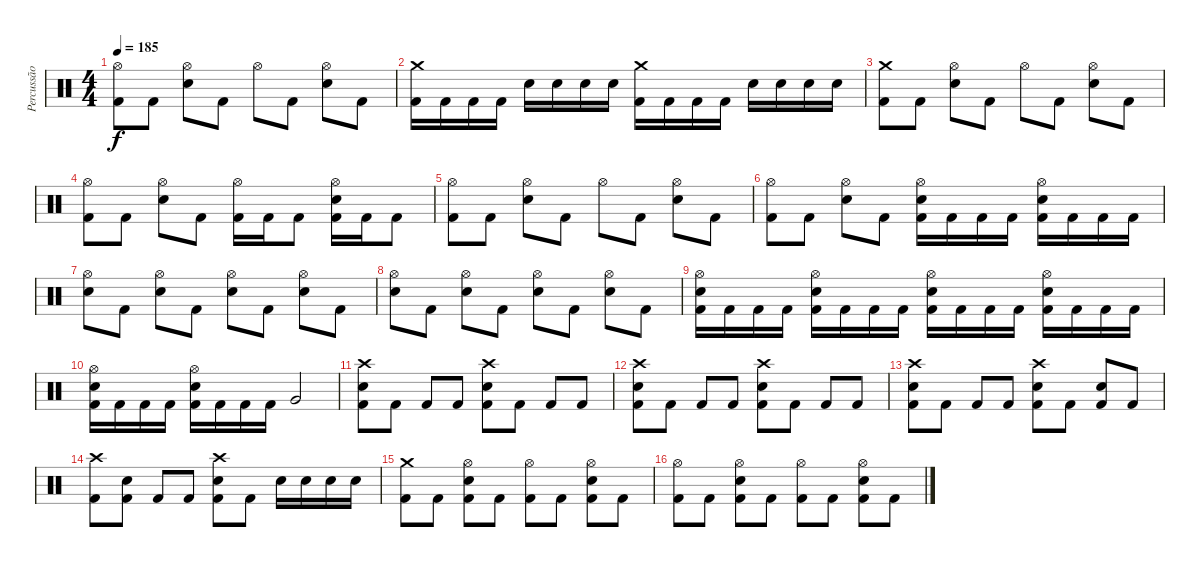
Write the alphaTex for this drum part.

\track ("Percussão" "Percussão") {instrument percussion}
\staff {score}
\articulation defaults
\ts (4 4)
\tempo 185
\clef neutral
\ks c
("Hi-Hat (open)" "Kick (hit) 2").8{dy f} "Kick (hit) 2".8 ("Hi-Hat (open)" "Snare (hit) 2").8 "Kick (hit) 2".8 "Hi-Hat (open)".8 "Kick (hit) 2".8 ("Hi-Hat (open)" "Snare (hit) 2").8 "Kick (hit) 2".8 |
("Crash medium (hit)" "Kick (hit) 2").16 "Kick (hit) 2".16 "Kick (hit) 2".16 "Kick (hit) 2".16 "Snare (hit) 2".16 "Snare (hit) 2".16 "Snare (hit) 2".16 "Snare (hit) 2".16 ("Crash medium (hit)" "Kick (hit) 2").16 "Kick (hit) 2".16 "Kick (hit) 2".16 "Kick (hit) 2".16 "Snare (hit) 2".16 "Snare (hit) 2".16 "Snare (hit) 2".16 "Snare (hit) 2".16 |
("Crash medium (hit)" "Kick (hit) 2").8 "Kick (hit) 2".8 ("Hi-Hat (open)" "Snare (hit) 2").8 "Kick (hit) 2".8 "Hi-Hat (open)".8 "Kick (hit) 2".8 ("Hi-Hat (open)" "Snare (hit) 2").8 "Kick (hit) 2".8 |
("Hi-Hat (open)" "Kick (hit) 2").8 "Kick (hit) 2".8 ("Hi-Hat (open)" "Snare (hit) 2").8 "Kick (hit) 2".8 ("Hi-Hat (open)" "Kick (hit) 2").16 "Kick (hit) 2".16 "Kick (hit) 2".8 ("Hi-Hat (open)" "Snare (hit) 2" "Kick (hit) 2").16 "Kick (hit) 2".16 "Kick (hit) 2".8 |
("Hi-Hat (open)" "Kick (hit) 2").8 "Kick (hit) 2".8 ("Hi-Hat (open)" "Snare (hit) 2").8 "Kick (hit) 2".8 "Hi-Hat (open)".8 "Kick (hit) 2".8 ("Hi-Hat (open)" "Snare (hit) 2").8 "Kick (hit) 2".8 |
("Hi-Hat (open)" "Kick (hit) 2").8 "Kick (hit) 2".8 ("Hi-Hat (open)" "Snare (hit) 2").8 "Kick (hit) 2".8 ("Hi-Hat (open)" "Snare (hit) 2" "Kick (hit) 2").16 "Kick (hit) 2".16 "Kick (hit) 2".16 "Kick (hit) 2".16 ("Hi-Hat (open)" "Snare (hit) 2" "Kick (hit) 2").16 "Kick (hit) 2".16 "Kick (hit) 2".16 "Kick (hit) 2".16 |
("Hi-Hat (open)" "Snare (hit) 2").8 "Kick (hit) 2".8 ("Hi-Hat (open)" "Snare (hit) 2").8 "Kick (hit) 2".8 ("Hi-Hat (open)" "Snare (hit) 2").8 "Kick (hit) 2".8 ("Hi-Hat (open)" "Snare (hit) 2").8 "Kick (hit) 2".8 |
("Hi-Hat (open)" "Snare (hit) 2").8 "Kick (hit) 2".8 ("Hi-Hat (open)" "Snare (hit) 2").8 "Kick (hit) 2".8 ("Hi-Hat (open)" "Snare (hit) 2").8 "Kick (hit) 2".8 ("Hi-Hat (open)" "Snare (hit) 2").8 "Kick (hit) 2".8 |
("Hi-Hat (open)" "Snare (hit) 2" "Kick (hit) 2").16 "Kick (hit) 2".16 "Kick (hit) 2".16 "Kick (hit) 2".16 ("Hi-Hat (open)" "Snare (hit) 2" "Kick (hit) 2").16 "Kick (hit) 2".16 "Kick (hit) 2".16 "Kick (hit) 2".16 ("Hi-Hat (open)" "Snare (hit) 2" "Kick (hit) 2").16 "Kick (hit) 2".16 "Kick (hit) 2".16 "Kick (hit) 2".16 ("Hi-Hat (open)" "Snare (hit) 2" "Kick (hit) 2").16 "Kick (hit) 2".16 "Kick (hit) 2".16 "Kick (hit) 2".16 |
("Hi-Hat (open)" "Snare (hit) 2" "Kick (hit) 2").16 "Kick (hit) 2".16 "Kick (hit) 2".16 "Kick (hit) 2".16 ("Hi-Hat (open)" "Snare (hit) 2" "Kick (hit) 2").16 "Kick (hit) 2".16 "Kick (hit) 2".16 "Kick (hit) 2".16 "Very Low Tom (hit)".2 |
("Crash high (hit)" "Snare (hit) 2" "Kick (hit) 2").8 "Kick (hit) 2".8 "Kick (hit) 2".8 "Kick (hit) 2".8 ("Crash high (hit)" "Snare (hit) 2" "Kick (hit) 2").8 "Kick (hit) 2".8 "Kick (hit) 2".8 "Kick (hit) 2".8 |
("Crash high (hit)" "Snare (hit) 2" "Kick (hit) 2").8 "Kick (hit) 2".8 "Kick (hit) 2".8 "Kick (hit) 2".8 ("Crash high (hit)" "Snare (hit) 2" "Kick (hit) 2").8 "Kick (hit) 2".8 "Kick (hit) 2".8 "Kick (hit) 2".8 |
("Crash high (hit)" "Snare (hit) 2" "Kick (hit) 2").8 "Kick (hit) 2".8 "Kick (hit) 2".8 "Kick (hit) 2".8 ("Crash high (hit)" "Snare (hit) 2" "Kick (hit) 2").8 "Kick (hit) 2".8 ("Snare (hit) 2" "Kick (hit) 2").8 "Kick (hit) 2".8 |
("Crash high (hit)" "Kick (hit) 2").8 ("Snare (hit) 2" "Kick (hit) 2").8 "Kick (hit) 2".8 "Kick (hit) 2".8 ("Crash high (hit)" "Snare (hit) 2" "Kick (hit) 2").8 "Kick (hit) 2".8 "Snare (hit) 2".16 "Snare (hit) 2".16 "Snare (hit) 2".16 "Snare (hit) 2".16 |
("Crash medium (hit)" "Kick (hit) 2").8 "Kick (hit) 2".8 ("Hi-Hat (open)" "Snare (hit) 2" "Kick (hit) 2").8 "Kick (hit) 2".8 ("Hi-Hat (open)" "Kick (hit) 2").8 "Kick (hit) 2".8 ("Hi-Hat (open)" "Snare (hit) 2" "Kick (hit) 2").8 "Kick (hit) 2".8 |
("Hi-Hat (open)" "Kick (hit) 2").8 "Kick (hit) 2".8 ("Hi-Hat (open)" "Snare (hit) 2" "Kick (hit) 2").8 "Kick (hit) 2".8 ("Hi-Hat (open)" "Kick (hit) 2").8 "Kick (hit) 2".8 ("Hi-Hat (open)" "Snare (hit) 2" "Kick (hit) 2").8 "Kick (hit) 2".8
